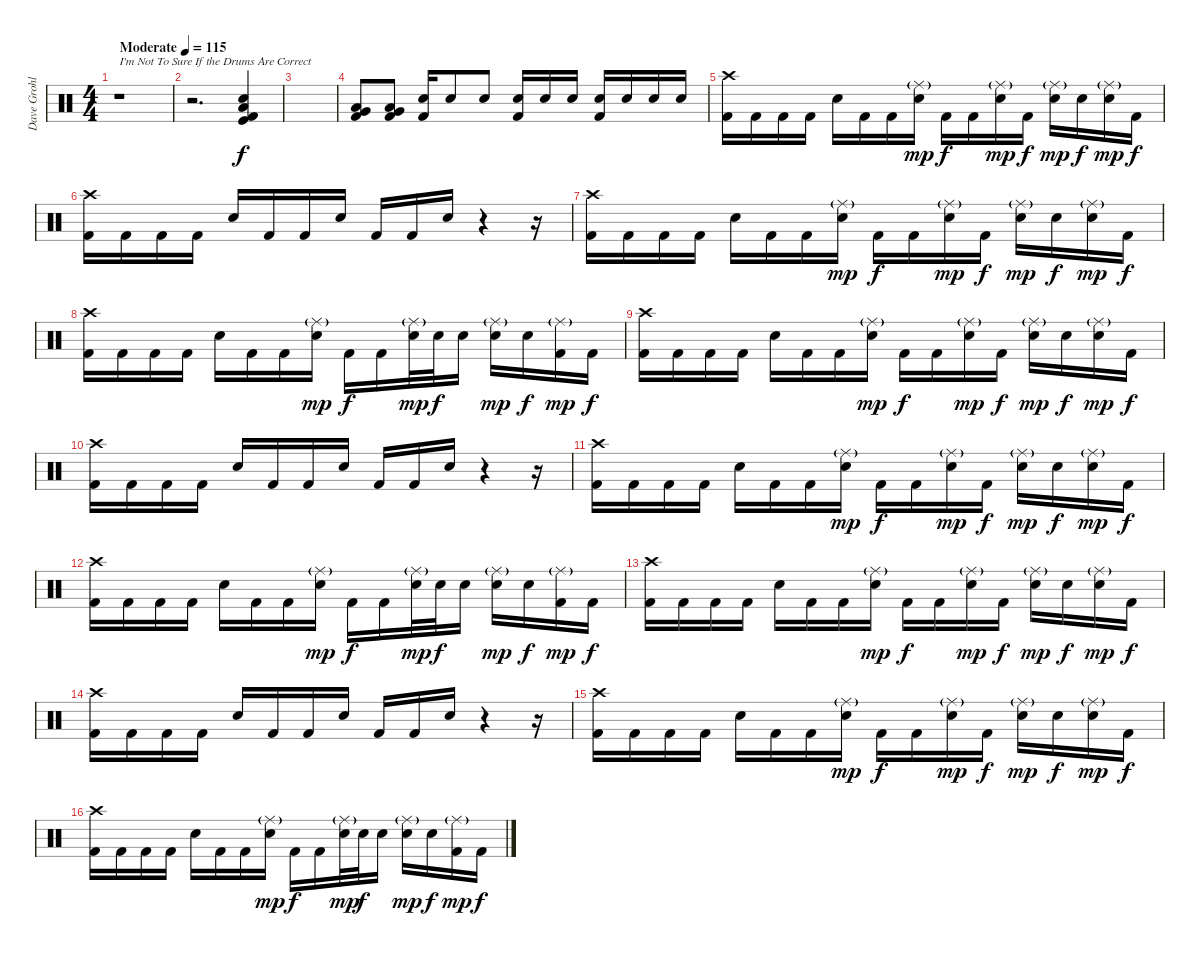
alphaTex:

\track ("Dave Grohl" "Dave Grohl") {instrument percussion}
\staff {score}
\articulation defaults
\ts (4 4)
\tempo (115 "Moderate")
\clef neutral
\ks c
r.1{txt "I'm Not To Sure If the Drums Are Correct" dy f} |
r.2{d} ("Kick (hit)" "Snare (hit) 2" "Low Tom (hit)" "Kick (hit) 2").4 |
|
("Very Low Tom (hit)" "Low Floor Tom (hit)" "Kick (hit) 2").8 ("Very Low Tom (hit)" "Low Floor Tom (hit)" "Kick (hit) 2").8 ("Snare (hit) 2" "Kick (hit) 2").16 "Snare (hit) 2".8 "Snare (hit) 2".8 ("Snare (hit) 2" "Kick (hit) 2").16 "Snare (hit) 2".16 "Snare (hit) 2".16 ("Snare (hit) 2" "Kick (hit) 2").16 "Snare (hit) 2".16 "Snare (hit) 2".16 "Snare (hit) 2".16 |
("Crash high (hit)" "Kick (hit) 2").16 "Kick (hit) 2".16 "Kick (hit) 2".16 "Kick (hit) 2".16 "Snare (hit) 2".16 "Kick (hit) 2".16 "Kick (hit) 2".16 ("Ride (middle)"{g} "Snare (hit) 2").16{dy mp} "Kick (hit) 2".16{dy f} "Kick (hit) 2".16 ("Ride (middle)"{g} "Snare (hit) 2").16{dy mp} "Kick (hit) 2".16{dy f} ("Ride (middle)"{g} "Snare (hit) 2").16{dy mp} "Snare (hit) 2".16{dy f} ("Ride (middle)"{g} "Snare (hit) 2").16{dy mp} "Kick (hit) 2".16{dy f} |
("Crash high (hit)" "Kick (hit) 2").16 "Kick (hit) 2".16 "Kick (hit) 2".16 "Kick (hit) 2".16 "Snare (hit) 2".16 "Kick (hit) 2".16 "Kick (hit) 2".16 "Snare (hit) 2".16 "Kick (hit) 2".16 "Kick (hit) 2".16 "Snare (hit) 2".16 r.4 r.16 |
("Crash high (hit)" "Kick (hit) 2").16 "Kick (hit) 2".16 "Kick (hit) 2".16 "Kick (hit) 2".16 "Snare (hit) 2".16 "Kick (hit) 2".16 "Kick (hit) 2".16 ("Ride (middle)"{g} "Snare (hit) 2").16{dy mp} "Kick (hit) 2".16{dy f} "Kick (hit) 2".16 ("Ride (middle)"{g} "Snare (hit) 2").16{dy mp} "Kick (hit) 2".16{dy f} ("Ride (middle)"{g} "Snare (hit) 2").16{dy mp} "Snare (hit) 2".16{dy f} ("Ride (middle)"{g} "Snare (hit) 2").16{dy mp} "Kick (hit) 2".16{dy f} |
("Crash high (hit)" "Kick (hit) 2").16 "Kick (hit) 2".16 "Kick (hit) 2".16 "Kick (hit) 2".16 "Snare (hit) 2".16 "Kick (hit) 2".16 "Kick (hit) 2".16 ("Ride (middle)"{g} "Snare (hit) 2").16{dy mp} "Kick (hit) 2".16{dy f} "Kick (hit) 2".16 ("Ride (middle)"{g} "Snare (hit) 2").32{dy mp} "Snare (hit) 2".32{dy f} "Snare (hit) 2".16 ("Ride (middle)"{g} "Snare (hit) 2").16{dy mp} "Snare (hit) 2".16{dy f} ("Ride (middle)"{g} "Kick (hit) 2").16{dy mp} "Kick (hit) 2".16{dy f} |
("Crash high (hit)" "Kick (hit) 2").16 "Kick (hit) 2".16 "Kick (hit) 2".16 "Kick (hit) 2".16 "Snare (hit) 2".16 "Kick (hit) 2".16 "Kick (hit) 2".16 ("Ride (middle)"{g} "Snare (hit) 2").16{dy mp} "Kick (hit) 2".16{dy f} "Kick (hit) 2".16 ("Ride (middle)"{g} "Snare (hit) 2").16{dy mp} "Kick (hit) 2".16{dy f} ("Ride (middle)"{g} "Snare (hit) 2").16{dy mp} "Snare (hit) 2".16{dy f} ("Ride (middle)"{g} "Snare (hit) 2").16{dy mp} "Kick (hit) 2".16{dy f} |
("Crash high (hit)" "Kick (hit) 2").16 "Kick (hit) 2".16 "Kick (hit) 2".16 "Kick (hit) 2".16 "Snare (hit) 2".16 "Kick (hit) 2".16 "Kick (hit) 2".16 "Snare (hit) 2".16 "Kick (hit) 2".16 "Kick (hit) 2".16 "Snare (hit) 2".16 r.4 r.16 |
("Crash high (hit)" "Kick (hit) 2").16 "Kick (hit) 2".16 "Kick (hit) 2".16 "Kick (hit) 2".16 "Snare (hit) 2".16 "Kick (hit) 2".16 "Kick (hit) 2".16 ("Ride (middle)"{g} "Snare (hit) 2").16{dy mp} "Kick (hit) 2".16{dy f} "Kick (hit) 2".16 ("Ride (middle)"{g} "Snare (hit) 2").16{dy mp} "Kick (hit) 2".16{dy f} ("Ride (middle)"{g} "Snare (hit) 2").16{dy mp} "Snare (hit) 2".16{dy f} ("Ride (middle)"{g} "Snare (hit) 2").16{dy mp} "Kick (hit) 2".16{dy f} |
("Crash high (hit)" "Kick (hit) 2").16 "Kick (hit) 2".16 "Kick (hit) 2".16 "Kick (hit) 2".16 "Snare (hit) 2".16 "Kick (hit) 2".16 "Kick (hit) 2".16 ("Ride (middle)"{g} "Snare (hit) 2").16{dy mp} "Kick (hit) 2".16{dy f} "Kick (hit) 2".16 ("Ride (middle)"{g} "Snare (hit) 2").32{dy mp} "Snare (hit) 2".32{dy f} "Snare (hit) 2".16 ("Ride (middle)"{g} "Snare (hit) 2").16{dy mp} "Snare (hit) 2".16{dy f} ("Ride (middle)"{g} "Kick (hit) 2").16{dy mp} "Kick (hit) 2".16{dy f} |
("Crash high (hit)" "Kick (hit) 2").16 "Kick (hit) 2".16 "Kick (hit) 2".16 "Kick (hit) 2".16 "Snare (hit) 2".16 "Kick (hit) 2".16 "Kick (hit) 2".16 ("Ride (middle)"{g} "Snare (hit) 2").16{dy mp} "Kick (hit) 2".16{dy f} "Kick (hit) 2".16 ("Ride (middle)"{g} "Snare (hit) 2").16{dy mp} "Kick (hit) 2".16{dy f} ("Ride (middle)"{g} "Snare (hit) 2").16{dy mp} "Snare (hit) 2".16{dy f} ("Ride (middle)"{g} "Snare (hit) 2").16{dy mp} "Kick (hit) 2".16{dy f} |
("Crash high (hit)" "Kick (hit) 2").16 "Kick (hit) 2".16 "Kick (hit) 2".16 "Kick (hit) 2".16 "Snare (hit) 2".16 "Kick (hit) 2".16 "Kick (hit) 2".16 "Snare (hit) 2".16 "Kick (hit) 2".16 "Kick (hit) 2".16 "Snare (hit) 2".16 r.4 r.16 |
("Crash high (hit)" "Kick (hit) 2").16 "Kick (hit) 2".16 "Kick (hit) 2".16 "Kick (hit) 2".16 "Snare (hit) 2".16 "Kick (hit) 2".16 "Kick (hit) 2".16 ("Ride (middle)"{g} "Snare (hit) 2").16{dy mp} "Kick (hit) 2".16{dy f} "Kick (hit) 2".16 ("Ride (middle)"{g} "Snare (hit) 2").16{dy mp} "Kick (hit) 2".16{dy f} ("Ride (middle)"{g} "Snare (hit) 2").16{dy mp} "Snare (hit) 2".16{dy f} ("Ride (middle)"{g} "Snare (hit) 2").16{dy mp} "Kick (hit) 2".16{dy f} |
("Crash high (hit)" "Kick (hit) 2").16 "Kick (hit) 2".16 "Kick (hit) 2".16 "Kick (hit) 2".16 "Snare (hit) 2".16 "Kick (hit) 2".16 "Kick (hit) 2".16 ("Ride (middle)"{g} "Snare (hit) 2").16{dy mp} "Kick (hit) 2".16{dy f} "Kick (hit) 2".16 ("Ride (middle)"{g} "Snare (hit) 2").32{dy mp} "Snare (hit) 2".32{dy f} "Snare (hit) 2".16 ("Ride (middle)"{g} "Snare (hit) 2").16{dy mp} "Snare (hit) 2".16{dy f} ("Ride (middle)"{g} "Kick (hit) 2").16{dy mp} "Kick (hit) 2".16{dy f}
